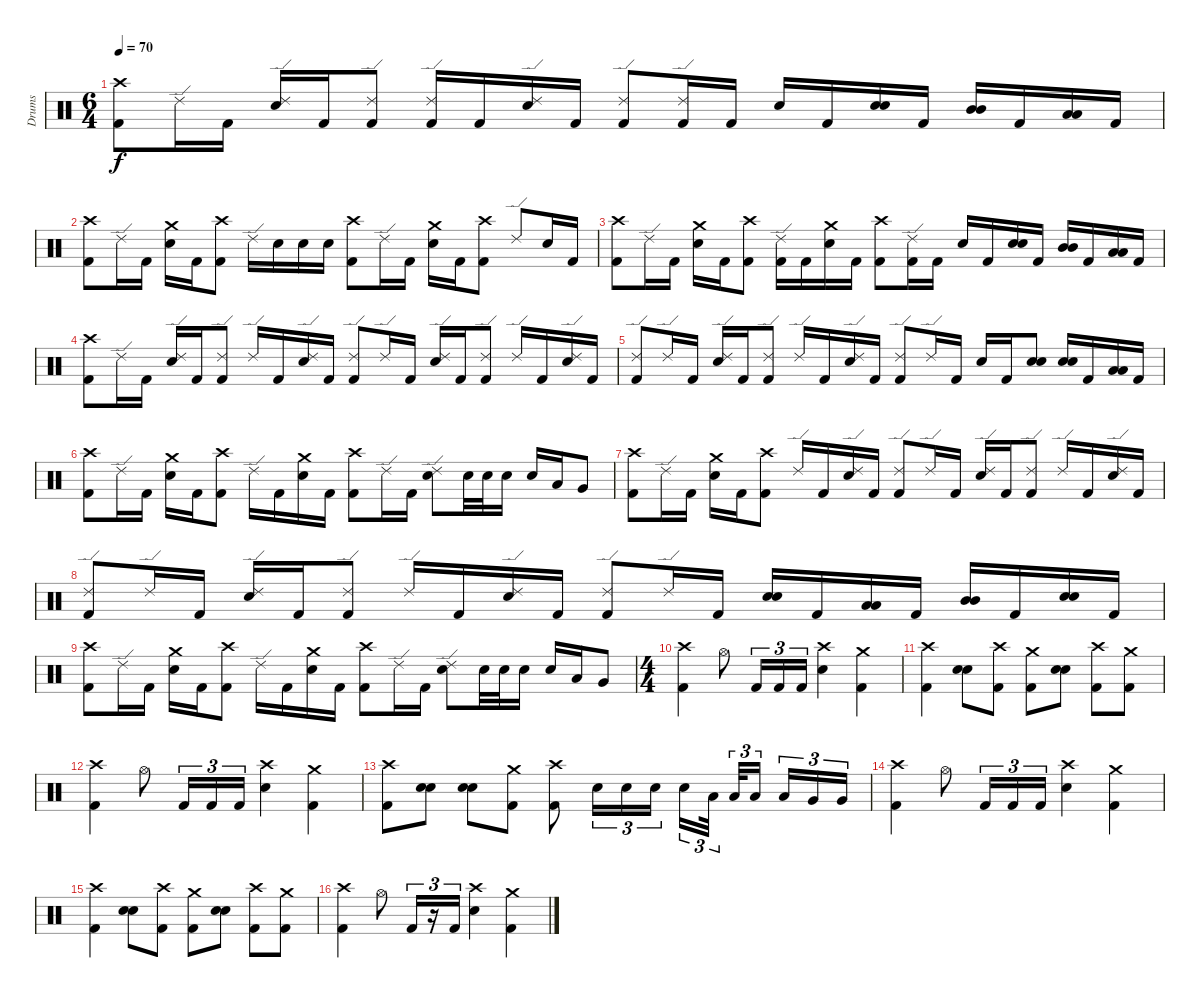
\track ("Drums" "Drums") {instrument percussion}
\staff {score}
\articulation defaults
\ts (6 4)
\tempo 70
\clef neutral
\ks c
("Crash high (hit)" "Kick (hit) 2").8{dy f} "Ride (edge) 2".16 "Kick (hit) 2".16 ("Ride (edge) 2" "Electric Snare (hit)").16 "Kick (hit) 2".16 ("Ride (edge) 2" "Kick (hit) 2").8 ("Ride (edge) 2" "Kick (hit) 2").16 "Kick (hit) 2".16 ("Ride (edge) 2" "Electric Snare (hit)").16 "Kick (hit) 2".16 ("Ride (edge) 2" "Kick (hit) 2").8 ("Ride (edge) 2" "Kick (hit) 2").16 "Kick (hit) 2".16 "Electric Snare (hit)".16 "Kick (hit) 2".16 ("Electric Snare (hit)" "Electric Snare (hit)").16{bu 60} "Kick (hit) 2".16 ("Mid Tom (hit)" "Mid Tom (hit)").16{bu 60} "Kick (hit) 2".16 ("Low Tom (hit)" "Low Tom (hit)").16{bu 60} "Kick (hit) 2".16 |
("Crash high (hit)" "Kick (hit) 2").8 "Ride (edge) 2".16 "Kick (hit) 2".16 ("Crash medium (hit)" "Electric Snare (hit)").16 "Kick (hit) 2".16 ("Crash high (hit)" "Kick (hit) 2").8 "Ride (edge) 2".16 "Electric Snare (hit)".16 "Electric Snare (hit)".16 "Electric Snare (hit)".16 ("Crash high (hit)" "Kick (hit) 2").8 "Ride (edge) 2".16 "Kick (hit) 2".16 ("Crash medium (hit)" "Electric Snare (hit)").16 "Kick (hit) 2".16 ("Crash high (hit)" "Kick (hit) 2").8 "Ride (edge) 2".8 "Electric Snare (hit)".16 "Kick (hit) 2".16 |
("Crash high (hit)" "Kick (hit) 2").8 "Ride (edge) 2".16 "Kick (hit) 2".16 ("Crash medium (hit)" "Electric Snare (hit)").16 "Kick (hit) 2".16 ("Crash high (hit)" "Kick (hit) 2").8 ("Ride (edge) 2" "Kick (hit) 2").16 "Kick (hit) 2".16 ("Crash medium (hit)" "Electric Snare (hit)").16 "Kick (hit) 2".16 ("Crash high (hit)" "Kick (hit) 2").8 ("Ride (edge) 2" "Kick (hit) 2").16 "Kick (hit) 2".16 "Electric Snare (hit)".16 "Kick (hit) 2".16 ("Electric Snare (hit)" "Electric Snare (hit)").16{bu 60} "Kick (hit) 2".16 ("Mid Tom (hit)" "Mid Tom (hit)").16{bu 60} "Kick (hit) 2".16 ("Low Tom (hit)" "Low Tom (hit)").16{bu 60} "Kick (hit) 2".16 |
("Crash high (hit)" "Kick (hit) 2").8 "Ride (edge) 2".16 "Kick (hit) 2".16 ("Ride (edge) 2" "Electric Snare (hit)").16 "Kick (hit) 2".16 ("Ride (edge) 2" "Kick (hit) 2").8 "Ride (edge) 2".16 "Kick (hit) 2".16 ("Ride (edge) 2" "Electric Snare (hit)").16 "Kick (hit) 2".16 ("Ride (edge) 2" "Kick (hit) 2").8 "Ride (edge) 2".16 "Kick (hit) 2".16 ("Ride (edge) 2" "Electric Snare (hit)").16 "Kick (hit) 2".16 ("Ride (edge) 2" "Kick (hit) 2").8 "Ride (edge) 2".16 "Kick (hit) 2".16 ("Ride (edge) 2" "Electric Snare (hit)").16 "Kick (hit) 2".16 |
("Ride (edge) 2" "Kick (hit) 2").8 "Ride (edge) 2".16 "Kick (hit) 2".16 ("Ride (edge) 2" "Electric Snare (hit)").16 "Kick (hit) 2".16 ("Ride (edge) 2" "Kick (hit) 2").8 "Ride (edge) 2".16 "Kick (hit) 2".16 ("Ride (edge) 2" "Electric Snare (hit)").16 "Kick (hit) 2".16 ("Ride (edge) 2" "Kick (hit) 2").8 "Ride (edge) 2".16 "Kick (hit) 2".16 "Electric Snare (hit)".16 "Kick (hit) 2".16 ("Electric Snare (hit)" "Electric Snare (hit)").8{bu 60} ("Electric Snare (hit)" "Electric Snare (hit)").16{bu 60} "Kick (hit) 2".16 ("Low Tom (hit)" "Low Tom (hit)").16{bu 60} "Kick (hit) 2".16 |
("Crash high (hit)" "Kick (hit) 2").8 "Ride (edge) 2".16 "Kick (hit) 2".16 ("Crash medium (hit)" "Electric Snare (hit)").16 "Kick (hit) 2".16 ("Crash high (hit)" "Kick (hit) 2").8 "Ride (edge) 2".16 "Kick (hit) 2".16 ("Crash medium (hit)" "Electric Snare (hit)").16 "Kick (hit) 2".16 ("Crash high (hit)" "Kick (hit) 2").8 "Ride (edge) 2".16 "Kick (hit) 2".16 ("Ride (edge) 2" "Electric Snare (hit)").8 "Electric Snare (hit)".32 "Electric Snare (hit)".32 "Electric Snare (hit)".16 "Electric Snare (hit)".16 "Low Tom (hit)".16 "Very Low Tom (hit)".8 |
("Crash high (hit)" "Kick (hit) 2").8 "Ride (edge) 2".16 "Kick (hit) 2".16 ("Crash medium (hit)" "Electric Snare (hit)").16 "Kick (hit) 2".16 ("Crash high (hit)" "Kick (hit) 2").8 "Ride (edge) 2".16 "Kick (hit) 2".16 ("Ride (edge) 2" "Electric Snare (hit)").16 "Kick (hit) 2".16 ("Ride (edge) 2" "Kick (hit) 2").8 "Ride (edge) 2".16 "Kick (hit) 2".16 ("Ride (edge) 2" "Electric Snare (hit)").16 "Kick (hit) 2".16 ("Ride (edge) 2" "Kick (hit) 2").8 "Ride (edge) 2".16 "Kick (hit) 2".16 ("Ride (edge) 2" "Electric Snare (hit)").16 "Kick (hit) 2".16 |
("Ride (edge) 2" "Kick (hit) 2").8 "Ride (edge) 2".16 "Kick (hit) 2".16 ("Ride (edge) 2" "Electric Snare (hit)").16 "Kick (hit) 2".16 ("Ride (edge) 2" "Kick (hit) 2").8 "Ride (edge) 2".16 "Kick (hit) 2".16 ("Ride (edge) 2" "Electric Snare (hit)").16 "Kick (hit) 2".16 ("Ride (edge) 2" "Kick (hit) 2").8 "Ride (edge) 2".16 "Kick (hit) 2".16 ("Electric Snare (hit)" "Electric Snare (hit)").16{bu 60} "Kick (hit) 2".16 ("Low Tom (hit)" "Low Tom (hit)").16{bu 60} "Kick (hit) 2".16 ("Mid Tom (hit)" "Mid Tom (hit)").16{bu 60} "Kick (hit) 2".16 ("Electric Snare (hit)" "Electric Snare (hit)").16{bu 60} "Kick (hit) 2".16 |
("Crash high (hit)" "Kick (hit) 2").8 "Ride (edge) 2".16 "Kick (hit) 2".16 ("Crash medium (hit)" "Electric Snare (hit)").16 "Kick (hit) 2".16 ("Crash high (hit)" "Kick (hit) 2").8 "Ride (edge) 2".16 "Kick (hit) 2".16 ("Crash medium (hit)" "Electric Snare (hit)").16 "Kick (hit) 2".16 ("Crash high (hit)" "Kick (hit) 2").8 "Ride (edge) 2".16 "Kick (hit) 2".16 ("Ride (edge) 2" "Electric Snare (hit)").8 "Electric Snare (hit)".32 "Electric Snare (hit)".32 "Electric Snare (hit)".16 "Electric Snare (hit)".16 "Low Tom (hit)".16 "Very Low Tom (hit)".8 |
\ts (4 4)
("Crash high (hit)" "Kick (hit) 2").4 "Hi-Hat (open)".8 "Kick (hit) 2".16{tu (3 2)} "Kick (hit) 2".16{tu (3 2)} "Kick (hit) 2".16{tu (3 2)} ("Crash high (hit)" "Electric Snare (hit)").4 ("Crash medium (hit)" "Kick (hit) 2").4 |
("Crash high (hit)" "Kick (hit) 2").4 ("Electric Snare (hit)" "Electric Snare (hit)").8{bu 60} ("Crash high (hit)" "Kick (hit) 2").8 ("Crash medium (hit)" "Kick (hit) 2").8 ("Electric Snare (hit)" "Electric Snare (hit)").8{bu 60} ("Crash high (hit)" "Kick (hit) 2").8 ("Crash medium (hit)" "Kick (hit) 2").8 |
("Crash high (hit)" "Kick (hit) 2").4 "Hi-Hat (open)".8 "Kick (hit) 2".16{tu (3 2)} "Kick (hit) 2".16{tu (3 2)} "Kick (hit) 2".16{tu (3 2)} ("Crash high (hit)" "Electric Snare (hit)").4 ("Crash medium (hit)" "Kick (hit) 2").4 |
("Crash high (hit)" "Kick (hit) 2").8 ("Electric Snare (hit)" "Electric Snare (hit)").8{bu 60} ("Electric Snare (hit)" "Electric Snare (hit)").8{bu 60} ("Crash medium (hit)" "Kick (hit) 2").8 ("Crash high (hit)" "Kick (hit) 2").8 "Electric Snare (hit)".16{tu (3 2)} "Electric Snare (hit)".16{tu (3 2)} "Electric Snare (hit)".16{tu (3 2)} "Electric Snare (hit)".16{tu (3 2)} "Low Tom (hit)".32{tu (3 2)} "Low Tom (hit)".32{tu (3 2)} "Low Tom (hit)".16{tu (3 2)} "Low Tom (hit)".16{tu (3 2)} "Very Low Tom (hit)".16{tu (3 2)} "Very Low Tom (hit)".16{tu (3 2)} |
("Crash high (hit)" "Kick (hit) 2").4 "Hi-Hat (open)".8 "Kick (hit) 2".16{tu (3 2)} "Kick (hit) 2".16{tu (3 2)} "Kick (hit) 2".16{tu (3 2)} ("Crash high (hit)" "Electric Snare (hit)").4 ("Crash medium (hit)" "Kick (hit) 2").4 |
("Crash high (hit)" "Kick (hit) 2").4 ("Electric Snare (hit)" "Electric Snare (hit)").8{bu 60} ("Crash high (hit)" "Kick (hit) 2").8 ("Crash medium (hit)" "Kick (hit) 2").8 ("Electric Snare (hit)" "Electric Snare (hit)").8{bu 60} ("Crash high (hit)" "Kick (hit) 2").8 ("Crash medium (hit)" "Kick (hit) 2").8 |
("Crash high (hit)" "Kick (hit) 2").4 "Hi-Hat (open)".8 "Kick (hit) 2".16{tu (3 2)} r.16{tu (3 2)} "Kick (hit) 2".16{tu (3 2)} ("Crash high (hit)" "Electric Snare (hit)").4 ("Crash medium (hit)" "Kick (hit) 2").4
